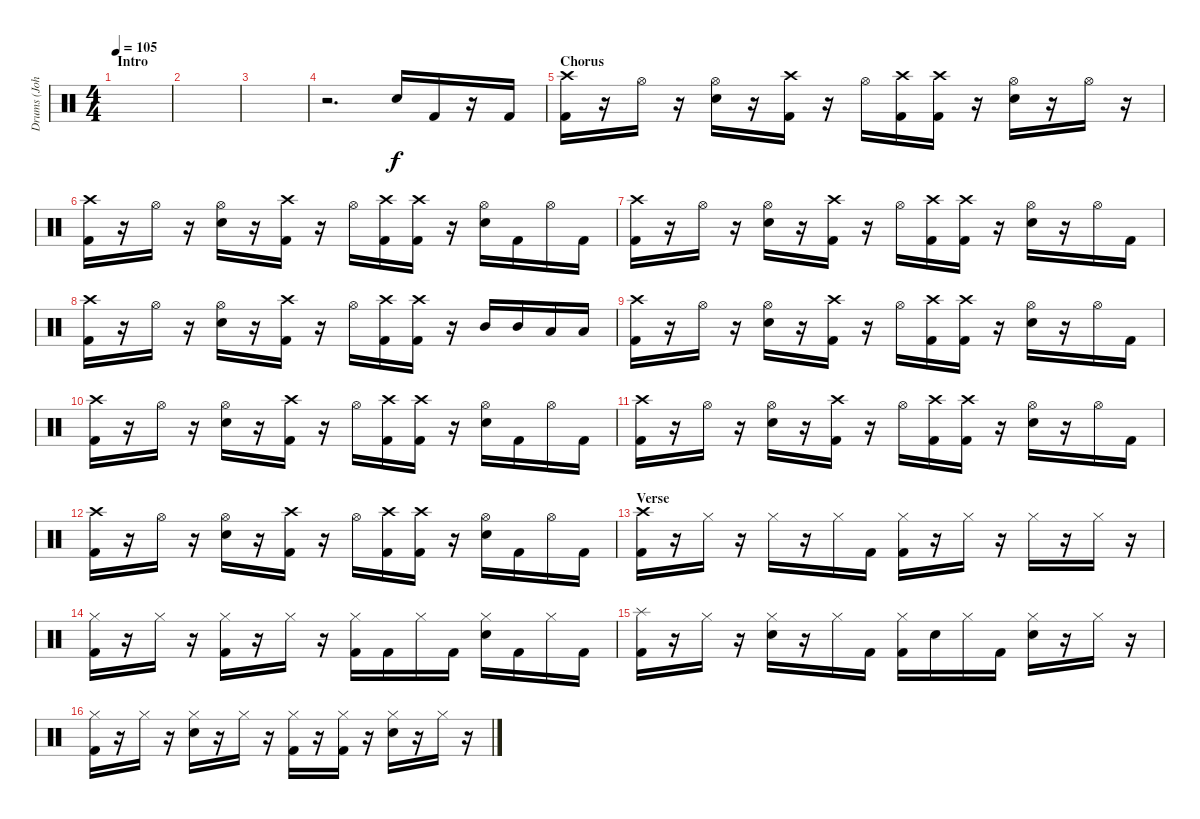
\track ("Drums (John Otto)" "Drums (Joh") {instrument percussion}
\staff {score}
\articulation defaults
\ts (4 4)
\section ("" "Intro")
\tempo 105
\clef neutral
\ks c
|
|
|
r.2{d} "Electric Snare (hit)".16 "Kick (hit) 2".16 r.16 "Kick (hit) 2".16 |
\section ("" "Chorus")
("Crash high (hit)" "Kick (hit) 2").16 r.16 "Hi-Hat (open)".16 r.16 ("Hi-Hat (open)" "Electric Snare (hit)").16 r.16 ("Crash high (hit)" "Kick (hit) 2").16 r.16 "Hi-Hat (open)".16 ("Crash high (hit)" "Kick (hit) 2").16 ("Crash high (hit)" "Kick (hit) 2").16 r.16 ("Hi-Hat (open)" "Electric Snare (hit)").16 r.16 "Hi-Hat (open)".16 r.16 |
("Crash high (hit)" "Kick (hit) 2").16 r.16 "Hi-Hat (open)".16 r.16 ("Hi-Hat (open)" "Electric Snare (hit)").16 r.16 ("Crash high (hit)" "Kick (hit) 2").16 r.16 "Hi-Hat (open)".16 ("Crash high (hit)" "Kick (hit) 2").16 ("Crash high (hit)" "Kick (hit) 2").16 r.16 ("Hi-Hat (open)" "Electric Snare (hit)").16 "Kick (hit) 2".16 "Hi-Hat (open)".16 "Kick (hit) 2".16 |
("Crash high (hit)" "Kick (hit) 2").16 r.16 "Hi-Hat (open)".16 r.16 ("Hi-Hat (open)" "Electric Snare (hit)").16 r.16 ("Crash high (hit)" "Kick (hit) 2").16 r.16 "Hi-Hat (open)".16 ("Crash high (hit)" "Kick (hit) 2").16 ("Crash high (hit)" "Kick (hit) 2").16 r.16 ("Hi-Hat (open)" "Electric Snare (hit)").16 r.16 "Hi-Hat (open)".16 "Kick (hit) 2".16 |
("Crash high (hit)" "Kick (hit) 2").16 r.16 "Hi-Hat (open)".16 r.16 ("Hi-Hat (open)" "Electric Snare (hit)").16 r.16 ("Crash high (hit)" "Kick (hit) 2").16 r.16 "Hi-Hat (open)".16 ("Crash high (hit)" "Kick (hit) 2").16 ("Crash high (hit)" "Kick (hit) 2").16 r.16 "Mid Tom (hit)".16 "Mid Tom (hit)".16 "Low Tom (hit)".16 "Low Tom (hit)".16 |
("Crash high (hit)" "Kick (hit) 2").16 r.16 "Hi-Hat (open)".16 r.16 ("Hi-Hat (open)" "Electric Snare (hit)").16 r.16 ("Crash high (hit)" "Kick (hit) 2").16 r.16 "Hi-Hat (open)".16 ("Crash high (hit)" "Kick (hit) 2").16 ("Crash high (hit)" "Kick (hit) 2").16 r.16 ("Hi-Hat (open)" "Electric Snare (hit)").16 r.16 "Hi-Hat (open)".16 "Kick (hit) 2".16 |
("Crash high (hit)" "Kick (hit) 2").16 r.16 "Hi-Hat (open)".16 r.16 ("Hi-Hat (open)" "Electric Snare (hit)").16 r.16 ("Crash high (hit)" "Kick (hit) 2").16 r.16 "Hi-Hat (open)".16 ("Crash high (hit)" "Kick (hit) 2").16 ("Crash high (hit)" "Kick (hit) 2").16 r.16 ("Hi-Hat (open)" "Electric Snare (hit)").16 "Kick (hit) 2".16 "Hi-Hat (open)".16 "Kick (hit) 2".16 |
("Crash high (hit)" "Kick (hit) 2").16 r.16 "Hi-Hat (open)".16 r.16 ("Hi-Hat (open)" "Electric Snare (hit)").16 r.16 ("Crash high (hit)" "Kick (hit) 2").16 r.16 "Hi-Hat (open)".16 ("Crash high (hit)" "Kick (hit) 2").16 ("Crash high (hit)" "Kick (hit) 2").16 r.16 ("Hi-Hat (open)" "Electric Snare (hit)").16 r.16 "Hi-Hat (open)".16 "Kick (hit) 2".16 |
("Crash high (hit)" "Kick (hit) 2").16 r.16 "Hi-Hat (open)".16 r.16 ("Hi-Hat (open)" "Electric Snare (hit)").16 r.16 ("Crash high (hit)" "Kick (hit) 2").16 r.16 "Hi-Hat (open)".16 ("Crash high (hit)" "Kick (hit) 2").16 ("Crash high (hit)" "Kick (hit) 2").16 r.16 ("Hi-Hat (open)" "Electric Snare (hit)").16 "Kick (hit) 2".16 "Hi-Hat (open)".16 "Kick (hit) 2".16 |
\section ("" "Verse")
("Crash high (hit)" "Kick (hit) 2").16 r.16 "Hi-Hat (closed)".16 r.16 "Hi-Hat (closed)".16 r.16 "Hi-Hat (closed)".16 "Kick (hit) 2".16 ("Hi-Hat (closed)" "Kick (hit) 2").16 r.16 "Hi-Hat (closed)".16 r.16 "Hi-Hat (closed)".16 r.16 "Hi-Hat (closed)".16 r.16 |
("Hi-Hat (closed)" "Kick (hit) 2").16 r.16 "Hi-Hat (closed)".16 r.16 ("Hi-Hat (closed)" "Kick (hit) 2").16 r.16 "Hi-Hat (closed)".16 r.16 ("Hi-Hat (closed)" "Kick (hit) 2").16 "Kick (hit) 2".16 "Hi-Hat (closed)".16 "Kick (hit) 2".16 ("Hi-Hat (closed)" "Electric Snare (hit)").16 "Kick (hit) 2".16 "Hi-Hat (closed)".16 "Kick (hit) 2".16 |
("Splash (hit)" "Kick (hit) 2").16 r.16 "Hi-Hat (closed)".16 r.16 ("Hi-Hat (closed)" "Electric Snare (hit)").16 r.16 "Hi-Hat (closed)".16 "Kick (hit) 2".16 ("Hi-Hat (closed)" "Kick (hit) 2").16 "Electric Snare (hit)".16 "Hi-Hat (closed)".16 "Kick (hit) 2".16 ("Hi-Hat (closed)" "Electric Snare (hit)").16 r.16 "Hi-Hat (closed)".16 r.16 |
("Hi-Hat (closed)" "Kick (hit) 2").16 r.16 "Hi-Hat (closed)".16 r.16 ("Hi-Hat (closed)" "Electric Snare (hit)").16 r.16 "Hi-Hat (closed)".16 r.16 ("Hi-Hat (closed)" "Kick (hit) 2").16 r.16 ("Hi-Hat (closed)" "Kick (hit) 2").16 r.16 ("Hi-Hat (closed)" "Electric Snare (hit)").16 r.16 "Hi-Hat (closed)".16 r.16
